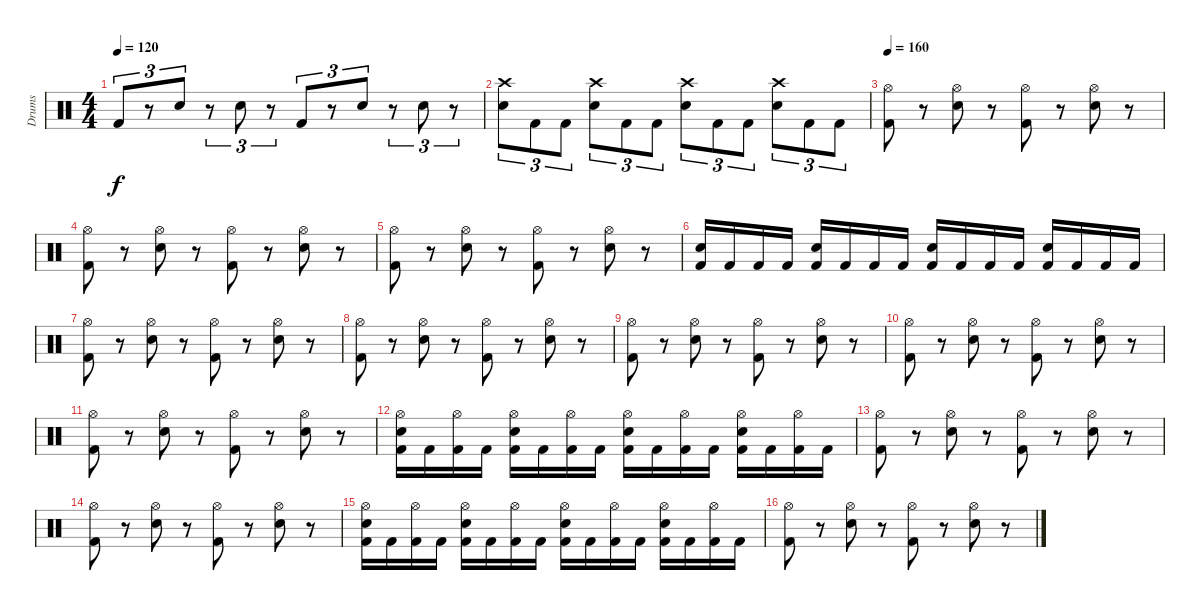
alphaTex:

\track ("Drums" "Drums") {instrument percussion}
\staff {score}
\articulation defaults
\ts (4 4)
\tempo 120
\clef neutral
\ks c "Kick (hit) 2".8{tu (3 2) dy f}
r.8{tu (3 2)} "Electric Snare (hit)".8{tu (3 2)} r.8{tu (3 2)} "Electric Snare (hit)".8{tu (3 2)} r.8{tu (3 2)} "Kick (hit) 2".8{tu (3 2)} r.8{tu (3 2)} "Electric Snare (hit)".8{tu (3 2)} r.8{tu (3 2)} "Electric Snare (hit)".8{tu (3 2)} r.8{tu (3 2)} |
("Crash high (hit)" "Electric Snare (hit)").8{tu (3 2)} "Kick (hit) 2".8{tu (3 2)} "Kick (hit) 2".8{tu (3 2)} ("Crash high (hit)" "Electric Snare (hit)").8{tu (3 2)} "Kick (hit) 2".8{tu (3 2)} "Kick (hit) 2".8{tu (3 2)} ("Crash high (hit)" "Electric Snare (hit)").8{tu (3 2)} "Kick (hit) 2".8{tu (3 2)} "Kick (hit) 2".8{tu (3 2)} ("Crash high (hit)" "Electric Snare (hit)").8{tu (3 2)} "Kick (hit) 2".8{tu (3 2)} "Kick (hit) 2".8{tu (3 2)} |
\tempo 160
("Hi-Hat (open)" "Kick (hit) 2").8 r.8 ("Hi-Hat (open)" "Electric Snare (hit)").8 r.8 ("Hi-Hat (open)" "Kick (hit) 2").8 r.8 ("Hi-Hat (open)" "Electric Snare (hit)").8 r.8 |
("Hi-Hat (open)" "Kick (hit) 2").8 r.8 ("Hi-Hat (open)" "Electric Snare (hit)").8 r.8 ("Hi-Hat (open)" "Kick (hit) 2").8 r.8 ("Hi-Hat (open)" "Electric Snare (hit)").8 r.8 |
("Hi-Hat (open)" "Kick (hit) 2").8 r.8 ("Hi-Hat (open)" "Electric Snare (hit)").8 r.8 ("Hi-Hat (open)" "Kick (hit) 2").8 r.8 ("Hi-Hat (open)" "Electric Snare (hit)").8 r.8 |
("Electric Snare (hit)" "Kick (hit) 2").16 "Kick (hit) 2".16 "Kick (hit) 2".16 "Kick (hit) 2".16 ("Electric Snare (hit)" "Kick (hit) 2").16 "Kick (hit) 2".16 "Kick (hit) 2".16 "Kick (hit) 2".16 ("Electric Snare (hit)" "Kick (hit) 2").16 "Kick (hit) 2".16 "Kick (hit) 2".16 "Kick (hit) 2".16 ("Electric Snare (hit)" "Kick (hit) 2").16 "Kick (hit) 2".16 "Kick (hit) 2".16 "Kick (hit) 2".16 |
("Hi-Hat (open)" "Kick (hit) 2").8 r.8 ("Hi-Hat (open)" "Electric Snare (hit)").8 r.8 ("Hi-Hat (open)" "Kick (hit) 2").8 r.8 ("Hi-Hat (open)" "Electric Snare (hit)").8 r.8 |
("Hi-Hat (open)" "Kick (hit) 2").8 r.8 ("Hi-Hat (open)" "Electric Snare (hit)").8 r.8 ("Hi-Hat (open)" "Kick (hit) 2").8 r.8 ("Hi-Hat (open)" "Electric Snare (hit)").8 r.8 |
("Hi-Hat (open)" "Kick (hit) 2").8 r.8 ("Hi-Hat (open)" "Electric Snare (hit)").8 r.8 ("Hi-Hat (open)" "Kick (hit) 2").8 r.8 ("Hi-Hat (open)" "Electric Snare (hit)").8 r.8 |
("Hi-Hat (open)" "Kick (hit) 2").8 r.8 ("Hi-Hat (open)" "Electric Snare (hit)").8 r.8 ("Hi-Hat (open)" "Kick (hit) 2").8 r.8 ("Hi-Hat (open)" "Electric Snare (hit)").8 r.8 |
("Hi-Hat (open)" "Kick (hit) 2").8 r.8 ("Hi-Hat (open)" "Electric Snare (hit)").8 r.8 ("Hi-Hat (open)" "Kick (hit) 2").8 r.8 ("Hi-Hat (open)" "Electric Snare (hit)").8 r.8 |
("Hi-Hat (open)" "Electric Snare (hit)" "Kick (hit) 2").16 "Kick (hit) 2".16 ("Hi-Hat (open)" "Kick (hit) 2").16 "Kick (hit) 2".16 ("Hi-Hat (open)" "Electric Snare (hit)" "Kick (hit) 2").16 "Kick (hit) 2".16 ("Hi-Hat (open)" "Kick (hit) 2").16 "Kick (hit) 2".16 ("Hi-Hat (open)" "Electric Snare (hit)" "Kick (hit) 2").16 "Kick (hit) 2".16 ("Hi-Hat (open)" "Kick (hit) 2").16 "Kick (hit) 2".16 ("Hi-Hat (open)" "Electric Snare (hit)" "Kick (hit) 2").16 "Kick (hit) 2".16 ("Hi-Hat (open)" "Kick (hit) 2").16 "Kick (hit) 2".16 |
("Hi-Hat (open)" "Kick (hit) 2").8 r.8 ("Hi-Hat (open)" "Electric Snare (hit)").8 r.8 ("Hi-Hat (open)" "Kick (hit) 2").8 r.8 ("Hi-Hat (open)" "Electric Snare (hit)").8 r.8 |
("Hi-Hat (open)" "Kick (hit) 2").8 r.8 ("Hi-Hat (open)" "Electric Snare (hit)").8 r.8 ("Hi-Hat (open)" "Kick (hit) 2").8 r.8 ("Hi-Hat (open)" "Electric Snare (hit)").8 r.8 |
("Hi-Hat (open)" "Electric Snare (hit)" "Kick (hit) 2").16 "Kick (hit) 2".16 ("Hi-Hat (open)" "Kick (hit) 2").16 "Kick (hit) 2".16 ("Hi-Hat (open)" "Electric Snare (hit)" "Kick (hit) 2").16 "Kick (hit) 2".16 ("Hi-Hat (open)" "Kick (hit) 2").16 "Kick (hit) 2".16 ("Hi-Hat (open)" "Electric Snare (hit)" "Kick (hit) 2").16 "Kick (hit) 2".16 ("Hi-Hat (open)" "Kick (hit) 2").16 "Kick (hit) 2".16 ("Hi-Hat (open)" "Electric Snare (hit)" "Kick (hit) 2").16 "Kick (hit) 2".16 ("Hi-Hat (open)" "Kick (hit) 2").16 "Kick (hit) 2".16 |
("Hi-Hat (open)" "Kick (hit) 2").8 r.8 ("Hi-Hat (open)" "Electric Snare (hit)").8 r.8 ("Hi-Hat (open)" "Kick (hit) 2").8 r.8 ("Hi-Hat (open)" "Electric Snare (hit)").8 r.8
